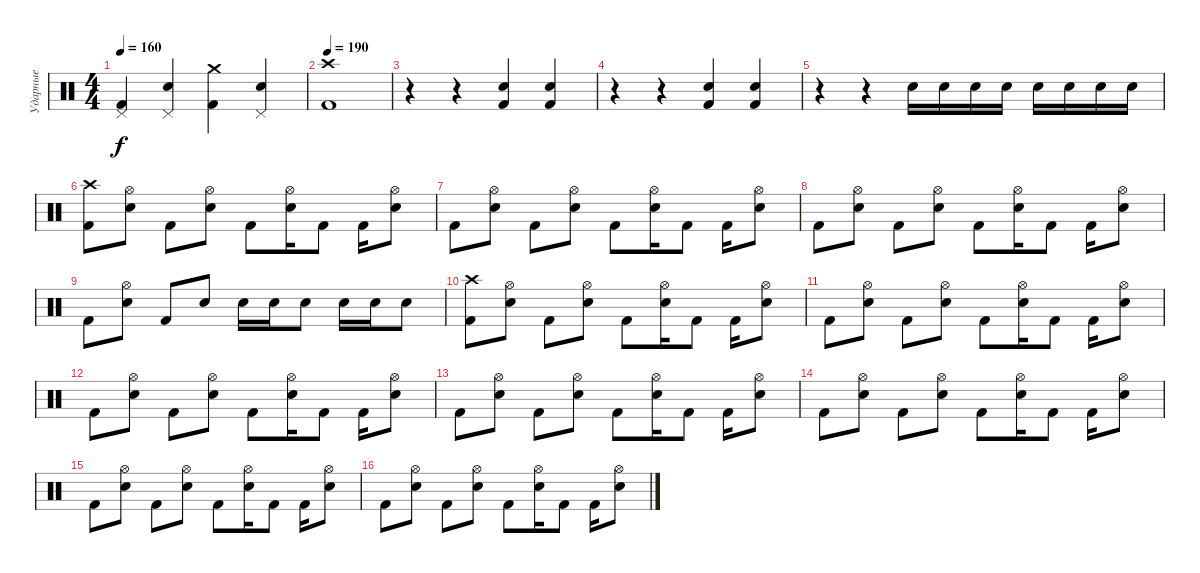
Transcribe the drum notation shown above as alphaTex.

\track ("Ударные" "Ударные") {instrument percussion}
\staff {score}
\articulation defaults
\ts (4 4)
\tempo 160
\clef neutral
\ks c
("Pedal Hi-Hat (hit)" "Kick (hit) 2").4{dy f} ("Pedal Hi-Hat (hit)" "Electric Snare (hit)").4 ("Crash medium (hit)" "Kick (hit) 2").4 ("Pedal Hi-Hat (hit)" "Electric Snare (hit)").4 |
\tempo 190
("Crash high (hit)" "Kick (hit) 2").1 |
r.4 r.4 ("Electric Snare (hit)" "Kick (hit) 2").4 ("Electric Snare (hit)" "Kick (hit) 2").4 |
r.4 r.4 ("Electric Snare (hit)" "Kick (hit) 2").4 ("Electric Snare (hit)" "Kick (hit) 2").4 |
r.4 r.4 "Electric Snare (hit)".16 "Electric Snare (hit)".16 "Electric Snare (hit)".16 "Electric Snare (hit)".16 "Electric Snare (hit)".16 "Electric Snare (hit)".16 "Electric Snare (hit)".16 "Electric Snare (hit)".16 |
("Crash high (hit)" "Kick (hit) 2").8 ("Hi-Hat (open)" "Electric Snare (hit)").8 "Kick (hit) 2".8 ("Hi-Hat (open)" "Electric Snare (hit)").8 "Kick (hit) 2".8 ("Hi-Hat (open)" "Electric Snare (hit)").16 "Kick (hit) 2".8 "Kick (hit) 2".16 ("Hi-Hat (open)" "Electric Snare (hit)").8 |
"Kick (hit) 2".8 ("Hi-Hat (open)" "Electric Snare (hit)").8 "Kick (hit) 2".8 ("Hi-Hat (open)" "Electric Snare (hit)").8 "Kick (hit) 2".8 ("Hi-Hat (open)" "Electric Snare (hit)").16 "Kick (hit) 2".8 "Kick (hit) 2".16 ("Hi-Hat (open)" "Electric Snare (hit)").8 |
"Kick (hit) 2".8 ("Hi-Hat (open)" "Electric Snare (hit)").8 "Kick (hit) 2".8 ("Hi-Hat (open)" "Electric Snare (hit)").8 "Kick (hit) 2".8 ("Hi-Hat (open)" "Electric Snare (hit)").16 "Kick (hit) 2".8 "Kick (hit) 2".16 ("Hi-Hat (open)" "Electric Snare (hit)").8 |
"Kick (hit) 2".8 ("Hi-Hat (open)" "Electric Snare (hit)").8 "Kick (hit) 2".8 "Electric Snare (hit)".8 "Electric Snare (hit)".16 "Electric Snare (hit)".16 "Electric Snare (hit)".8 "Electric Snare (hit)".16 "Electric Snare (hit)".16 "Electric Snare (hit)".8 |
("Crash high (hit)" "Kick (hit) 2").8 ("Hi-Hat (open)" "Electric Snare (hit)").8 "Kick (hit) 2".8 ("Hi-Hat (open)" "Electric Snare (hit)").8 "Kick (hit) 2".8 ("Hi-Hat (open)" "Electric Snare (hit)").16 "Kick (hit) 2".8 "Kick (hit) 2".16 ("Hi-Hat (open)" "Electric Snare (hit)").8 |
"Kick (hit) 2".8 ("Hi-Hat (open)" "Electric Snare (hit)").8 "Kick (hit) 2".8 ("Hi-Hat (open)" "Electric Snare (hit)").8 "Kick (hit) 2".8 ("Hi-Hat (open)" "Electric Snare (hit)").16 "Kick (hit) 2".8 "Kick (hit) 2".16 ("Hi-Hat (open)" "Electric Snare (hit)").8 |
"Kick (hit) 2".8 ("Hi-Hat (open)" "Electric Snare (hit)").8 "Kick (hit) 2".8 ("Hi-Hat (open)" "Electric Snare (hit)").8 "Kick (hit) 2".8 ("Hi-Hat (open)" "Electric Snare (hit)").16 "Kick (hit) 2".8 "Kick (hit) 2".16 ("Hi-Hat (open)" "Electric Snare (hit)").8 |
"Kick (hit) 2".8 ("Hi-Hat (open)" "Electric Snare (hit)").8 "Kick (hit) 2".8 ("Hi-Hat (open)" "Electric Snare (hit)").8 "Kick (hit) 2".8 ("Hi-Hat (open)" "Electric Snare (hit)").16 "Kick (hit) 2".8 "Kick (hit) 2".16 ("Hi-Hat (open)" "Electric Snare (hit)").8 |
"Kick (hit) 2".8 ("Hi-Hat (open)" "Electric Snare (hit)").8 "Kick (hit) 2".8 ("Hi-Hat (open)" "Electric Snare (hit)").8 "Kick (hit) 2".8 ("Hi-Hat (open)" "Electric Snare (hit)").16 "Kick (hit) 2".8 "Kick (hit) 2".16 ("Hi-Hat (open)" "Electric Snare (hit)").8 |
"Kick (hit) 2".8 ("Hi-Hat (open)" "Electric Snare (hit)").8 "Kick (hit) 2".8 ("Hi-Hat (open)" "Electric Snare (hit)").8 "Kick (hit) 2".8 ("Hi-Hat (open)" "Electric Snare (hit)").16 "Kick (hit) 2".8 "Kick (hit) 2".16 ("Hi-Hat (open)" "Electric Snare (hit)").8 |
"Kick (hit) 2".8 ("Hi-Hat (open)" "Electric Snare (hit)").8 "Kick (hit) 2".8 ("Hi-Hat (open)" "Electric Snare (hit)").8 "Kick (hit) 2".8 ("Hi-Hat (open)" "Electric Snare (hit)").16 "Kick (hit) 2".8 "Kick (hit) 2".16 ("Hi-Hat (open)" "Electric Snare (hit)").8
